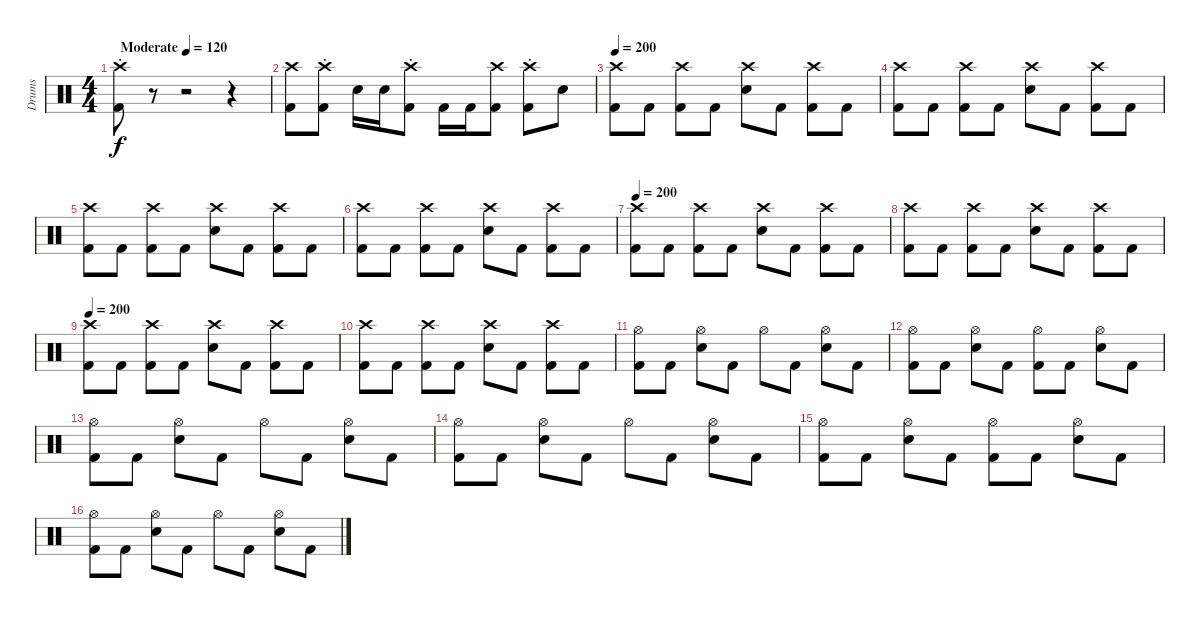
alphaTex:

\track ("Drums" "Drums") {instrument percussion}
\staff {score}
\articulation defaults
\ts (4 4)
\tempo (120 "Moderate")
\tempo 188
\tempo (120 "Moderate")
\clef neutral
\ks c
("Kick (hit) 2" "Crash high (hit)"{st}).8{dy f} r.8 r.2 r.4 |
("Kick (hit) 2" "Crash high (hit)").8 ("Kick (hit) 2"{st} "Crash high (hit)").8 "Electric Snare (hit)".16 "Electric Snare (hit)".16 ("Kick (hit) 2" "Crash high (hit)"{st}).8 "Kick (hit) 2".16 "Kick (hit) 2".16 ("Kick (hit) 2" "Crash high (hit)").8 ("Kick (hit) 2"{st} "Crash high (hit)").8 "Electric Snare (hit)".8 |
\tempo 200
("Crash high (hit)" "Kick (hit) 2").8 "Kick (hit) 2".8 ("Crash high (hit)" "Kick (hit) 2").8 "Kick (hit) 2".8 ("Crash high (hit)" "Electric Snare (hit)").8 "Kick (hit) 2".8 ("Crash high (hit)" "Kick (hit) 2").8 "Kick (hit) 2".8 |
("Crash high (hit)" "Kick (hit) 2").8 "Kick (hit) 2".8 ("Crash high (hit)" "Kick (hit) 2").8 "Kick (hit) 2".8 ("Crash high (hit)" "Electric Snare (hit)").8 "Kick (hit) 2".8 ("Crash high (hit)" "Kick (hit) 2").8 "Kick (hit) 2".8 |
("Crash high (hit)" "Kick (hit) 2").8 "Kick (hit) 2".8 ("Crash high (hit)" "Kick (hit) 2").8 "Kick (hit) 2".8 ("Crash high (hit)" "Electric Snare (hit)").8 "Kick (hit) 2".8 ("Crash high (hit)" "Kick (hit) 2").8 "Kick (hit) 2".8 |
("Crash high (hit)" "Kick (hit) 2").8 "Kick (hit) 2".8 ("Crash high (hit)" "Kick (hit) 2").8 "Kick (hit) 2".8 ("Crash high (hit)" "Electric Snare (hit)").8 "Kick (hit) 2".8 ("Crash high (hit)" "Kick (hit) 2").8 "Kick (hit) 2".8 |
\tempo 200
("Crash high (hit)" "Kick (hit) 2").8 "Kick (hit) 2".8 ("Crash high (hit)" "Kick (hit) 2").8 "Kick (hit) 2".8 ("Crash high (hit)" "Electric Snare (hit)").8 "Kick (hit) 2".8 ("Crash high (hit)" "Kick (hit) 2").8 "Kick (hit) 2".8 |
("Crash high (hit)" "Kick (hit) 2").8 "Kick (hit) 2".8 ("Crash high (hit)" "Kick (hit) 2").8 "Kick (hit) 2".8 ("Crash high (hit)" "Electric Snare (hit)").8 "Kick (hit) 2".8 ("Crash high (hit)" "Kick (hit) 2").8 "Kick (hit) 2".8 |
\tempo 200
("Crash high (hit)" "Kick (hit) 2").8 "Kick (hit) 2".8 ("Crash high (hit)" "Kick (hit) 2").8 "Kick (hit) 2".8 ("Crash high (hit)" "Electric Snare (hit)").8 "Kick (hit) 2".8 ("Crash high (hit)" "Kick (hit) 2").8 "Kick (hit) 2".8 |
("Crash high (hit)" "Kick (hit) 2").8 "Kick (hit) 2".8 ("Crash high (hit)" "Kick (hit) 2").8 "Kick (hit) 2".8 ("Crash high (hit)" "Electric Snare (hit)").8 "Kick (hit) 2".8 ("Crash high (hit)" "Kick (hit) 2").8 "Kick (hit) 2".8 |
("Kick (hit) 2" "Hi-Hat (open)").8 "Kick (hit) 2".8 ("Electric Snare (hit)" "Hi-Hat (open)").8 "Kick (hit) 2".8 "Hi-Hat (open)".8 "Kick (hit) 2".8 ("Electric Snare (hit)" "Hi-Hat (open)").8 "Kick (hit) 2".8 |
("Kick (hit) 2" "Hi-Hat (open)").8 "Kick (hit) 2".8 ("Electric Snare (hit)" "Hi-Hat (open)").8 "Kick (hit) 2".8 ("Kick (hit) 2" "Hi-Hat (open)").8 "Kick (hit) 2".8 ("Electric Snare (hit)" "Hi-Hat (open)").8 "Kick (hit) 2".8 |
("Kick (hit) 2" "Hi-Hat (open)").8 "Kick (hit) 2".8 ("Electric Snare (hit)" "Hi-Hat (open)").8 "Kick (hit) 2".8 "Hi-Hat (open)".8 "Kick (hit) 2".8 ("Electric Snare (hit)" "Hi-Hat (open)").8 "Kick (hit) 2".8 |
("Kick (hit) 2" "Hi-Hat (open)").8 "Kick (hit) 2".8 ("Electric Snare (hit)" "Hi-Hat (open)").8 "Kick (hit) 2".8 "Hi-Hat (open)".8 "Kick (hit) 2".8 ("Electric Snare (hit)" "Hi-Hat (open)").8 "Kick (hit) 2".8 |
("Kick (hit) 2" "Hi-Hat (open)").8 "Kick (hit) 2".8 ("Electric Snare (hit)" "Hi-Hat (open)").8 "Kick (hit) 2".8 ("Kick (hit) 2" "Hi-Hat (open)").8 "Kick (hit) 2".8 ("Electric Snare (hit)" "Hi-Hat (open)").8 "Kick (hit) 2".8 |
("Kick (hit) 2" "Hi-Hat (open)").8 "Kick (hit) 2".8 ("Electric Snare (hit)" "Hi-Hat (open)").8 "Kick (hit) 2".8 "Hi-Hat (open)".8 "Kick (hit) 2".8 ("Electric Snare (hit)" "Hi-Hat (open)").8 "Kick (hit) 2".8
